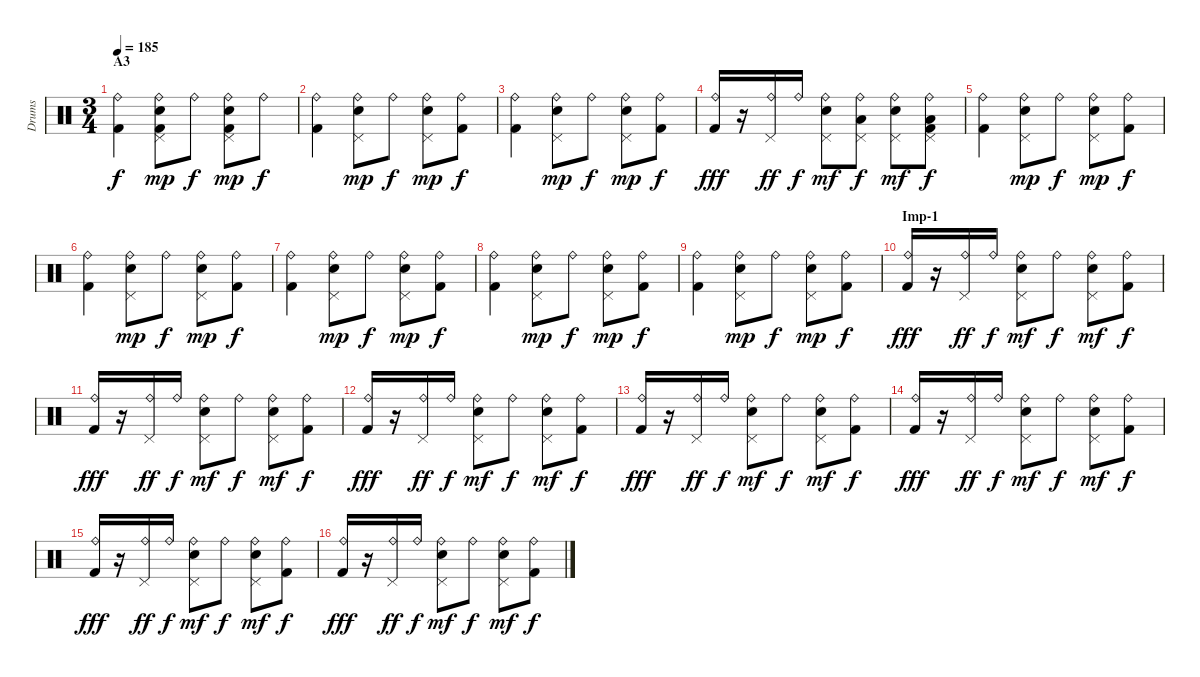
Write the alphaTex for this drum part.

\track ("Drums" "Drums") {instrument percussion}
\staff {score}
\articulation defaults
\ts (3 4)
\section ("" "A3")
\tempo 185
\clef neutral
\ks c
("Ride (bell)" "Kick (hit) 2").4{dy f} ("Ride (bell)" "Pedal Hi-Hat (hit)" "Electric Snare (hit)" "Kick (hit) 2").8{dy mp} "Ride (bell)".8{dy f} ("Ride (bell)" "Pedal Hi-Hat (hit)" "Electric Snare (hit)" "Kick (hit) 2").8{dy mp} "Ride (bell)".8{dy f} |
("Ride (bell)" "Kick (hit) 2").4 ("Ride (bell)" "Pedal Hi-Hat (hit)" "Electric Snare (hit)").8{dy mp} "Ride (bell)".8{dy f} ("Ride (bell)" "Pedal Hi-Hat (hit)" "Electric Snare (hit)").8{dy mp} ("Ride (bell)" "Kick (hit) 2").8{dy f} |
("Ride (bell)" "Kick (hit) 2").4 ("Ride (bell)" "Pedal Hi-Hat (hit)" "Electric Snare (hit)").8{dy mp} "Ride (bell)".8{dy f} ("Ride (bell)" "Pedal Hi-Hat (hit)" "Electric Snare (hit)").8{dy mp} ("Ride (bell)" "Kick (hit) 2").8{dy f} |
("Ride (bell)" "Kick (hit) 2").16{dy fff} r.16 ("Ride (bell)" "Pedal Hi-Hat (hit)").16{dy ff} "Ride (bell)".16{dy f} ("Ride (bell)" "Pedal Hi-Hat (hit)" "Electric Snare (hit)").8{dy mf} ("Ride (bell)" "Pedal Hi-Hat (hit)" "Low Floor Tom (hit)").8{dy f} ("Ride (bell)" "Pedal Hi-Hat (hit)" "Electric Snare (hit)").8{dy mf} ("Ride (bell)" "Pedal Hi-Hat (hit)" "Low Floor Tom (hit)" "Kick (hit) 2").8{dy f} |
("Ride (bell)" "Kick (hit) 2").4 ("Ride (bell)" "Pedal Hi-Hat (hit)" "Electric Snare (hit)").8{dy mp} "Ride (bell)".8{dy f} ("Ride (bell)" "Pedal Hi-Hat (hit)" "Electric Snare (hit)").8{dy mp} ("Ride (bell)" "Kick (hit) 2").8{dy f} |
("Ride (bell)" "Kick (hit) 2").4 ("Ride (bell)" "Pedal Hi-Hat (hit)" "Electric Snare (hit)").8{dy mp} "Ride (bell)".8{dy f} ("Ride (bell)" "Pedal Hi-Hat (hit)" "Electric Snare (hit)").8{dy mp} ("Ride (bell)" "Kick (hit) 2").8{dy f} |
("Ride (bell)" "Kick (hit) 2").4 ("Ride (bell)" "Pedal Hi-Hat (hit)" "Electric Snare (hit)").8{dy mp} "Ride (bell)".8{dy f} ("Ride (bell)" "Pedal Hi-Hat (hit)" "Electric Snare (hit)").8{dy mp} ("Ride (bell)" "Kick (hit) 2").8{dy f} |
("Ride (bell)" "Kick (hit) 2").4 ("Ride (bell)" "Pedal Hi-Hat (hit)" "Electric Snare (hit)").8{dy mp} "Ride (bell)".8{dy f} ("Ride (bell)" "Pedal Hi-Hat (hit)" "Electric Snare (hit)").8{dy mp} ("Ride (bell)" "Kick (hit) 2").8{dy f} |
("Ride (bell)" "Kick (hit) 2").4 ("Ride (bell)" "Pedal Hi-Hat (hit)" "Electric Snare (hit)").8{dy mp} "Ride (bell)".8{dy f} ("Ride (bell)" "Pedal Hi-Hat (hit)" "Electric Snare (hit)").8{dy mp} ("Ride (bell)" "Kick (hit) 2").8{dy f} |
\section ("" "Imp-1")
("Ride (bell)" "Kick (hit) 2").16{dy fff} r.16 ("Ride (bell)" "Pedal Hi-Hat (hit)").16{dy ff} "Ride (bell)".16{dy f} ("Ride (bell)" "Pedal Hi-Hat (hit)" "Electric Snare (hit)").8{dy mf} "Ride (bell)".8{dy f} ("Ride (bell)" "Pedal Hi-Hat (hit)" "Electric Snare (hit)").8{dy mf} ("Ride (bell)" "Kick (hit) 2").8{dy f} |
("Ride (bell)" "Kick (hit) 2").16{dy fff} r.16 ("Ride (bell)" "Pedal Hi-Hat (hit)").16{dy ff} "Ride (bell)".16{dy f} ("Ride (bell)" "Pedal Hi-Hat (hit)" "Electric Snare (hit)").8{dy mf} "Ride (bell)".8{dy f} ("Ride (bell)" "Pedal Hi-Hat (hit)" "Electric Snare (hit)").8{dy mf} ("Ride (bell)" "Kick (hit) 2").8{dy f} |
("Ride (bell)" "Kick (hit) 2").16{dy fff} r.16 ("Ride (bell)" "Pedal Hi-Hat (hit)").16{dy ff} "Ride (bell)".16{dy f} ("Ride (bell)" "Pedal Hi-Hat (hit)" "Electric Snare (hit)").8{dy mf} "Ride (bell)".8{dy f} ("Ride (bell)" "Pedal Hi-Hat (hit)" "Electric Snare (hit)").8{dy mf} ("Ride (bell)" "Kick (hit) 2").8{dy f} |
("Ride (bell)" "Kick (hit) 2").16{dy fff} r.16 ("Ride (bell)" "Pedal Hi-Hat (hit)").16{dy ff} "Ride (bell)".16{dy f} ("Ride (bell)" "Pedal Hi-Hat (hit)" "Electric Snare (hit)").8{dy mf} "Ride (bell)".8{dy f} ("Ride (bell)" "Pedal Hi-Hat (hit)" "Electric Snare (hit)").8{dy mf} ("Ride (bell)" "Kick (hit) 2").8{dy f} |
("Ride (bell)" "Kick (hit) 2").16{dy fff} r.16 ("Ride (bell)" "Pedal Hi-Hat (hit)").16{dy ff} "Ride (bell)".16{dy f} ("Ride (bell)" "Pedal Hi-Hat (hit)" "Electric Snare (hit)").8{dy mf} "Ride (bell)".8{dy f} ("Ride (bell)" "Pedal Hi-Hat (hit)" "Electric Snare (hit)").8{dy mf} ("Ride (bell)" "Kick (hit) 2").8{dy f} |
("Ride (bell)" "Kick (hit) 2").16{dy fff} r.16 ("Ride (bell)" "Pedal Hi-Hat (hit)").16{dy ff} "Ride (bell)".16{dy f} ("Ride (bell)" "Pedal Hi-Hat (hit)" "Electric Snare (hit)").8{dy mf} "Ride (bell)".8{dy f} ("Ride (bell)" "Pedal Hi-Hat (hit)" "Electric Snare (hit)").8{dy mf} ("Ride (bell)" "Kick (hit) 2").8{dy f} |
("Ride (bell)" "Kick (hit) 2").16{dy fff} r.16 ("Ride (bell)" "Pedal Hi-Hat (hit)").16{dy ff} "Ride (bell)".16{dy f} ("Ride (bell)" "Pedal Hi-Hat (hit)" "Electric Snare (hit)").8{dy mf} "Ride (bell)".8{dy f} ("Ride (bell)" "Pedal Hi-Hat (hit)" "Electric Snare (hit)").8{dy mf} ("Ride (bell)" "Kick (hit) 2").8{dy f}
